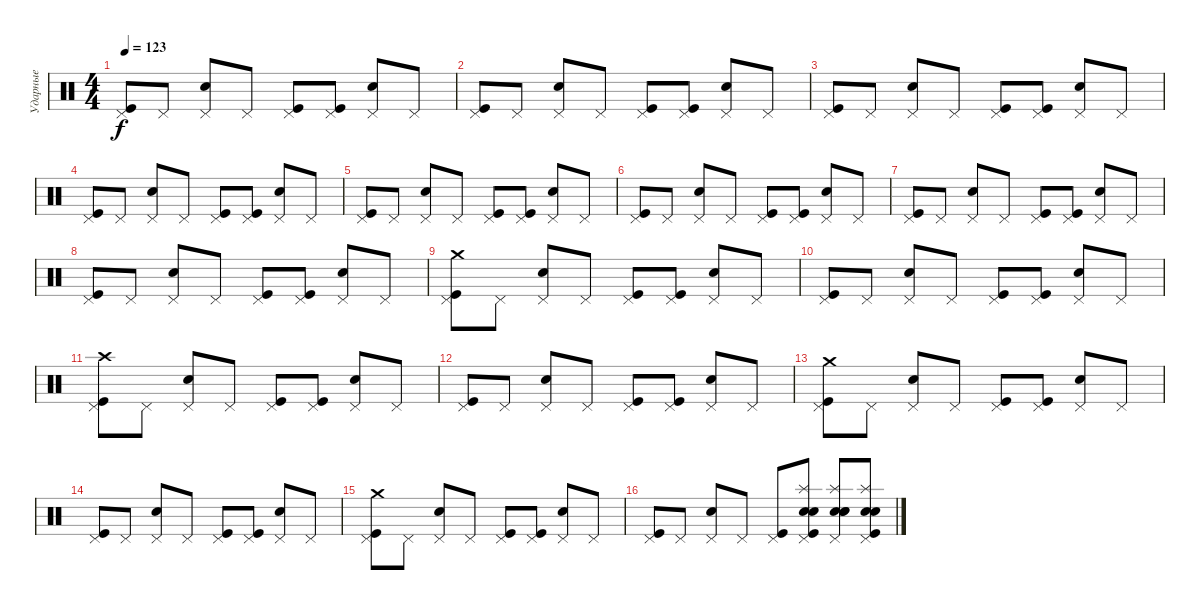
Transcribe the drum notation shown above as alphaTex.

\track ("Ударные" "Ударные") {instrument percussion}
\staff {score}
\articulation defaults
\ts (4 4)
\tempo 123
\clef neutral
\ks c
("Pedal Hi-Hat (hit)" "Kick (hit)").8{dy f} "Pedal Hi-Hat (hit)".8 ("Pedal Hi-Hat (hit)" "Snare (hit) 2").8 "Pedal Hi-Hat (hit)".8 ("Pedal Hi-Hat (hit)" "Kick (hit)").8 ("Pedal Hi-Hat (hit)" "Kick (hit)").8 ("Pedal Hi-Hat (hit)" "Snare (hit) 2").8 "Pedal Hi-Hat (hit)".8 |
("Pedal Hi-Hat (hit)" "Kick (hit)").8 "Pedal Hi-Hat (hit)".8 ("Pedal Hi-Hat (hit)" "Snare (hit) 2").8 "Pedal Hi-Hat (hit)".8 ("Pedal Hi-Hat (hit)" "Kick (hit)").8 ("Pedal Hi-Hat (hit)" "Kick (hit)").8 ("Pedal Hi-Hat (hit)" "Snare (hit) 2").8 "Pedal Hi-Hat (hit)".8 |
("Pedal Hi-Hat (hit)" "Kick (hit)").8 "Pedal Hi-Hat (hit)".8 ("Pedal Hi-Hat (hit)" "Snare (hit) 2").8 "Pedal Hi-Hat (hit)".8 ("Pedal Hi-Hat (hit)" "Kick (hit)").8 ("Pedal Hi-Hat (hit)" "Kick (hit)").8 ("Pedal Hi-Hat (hit)" "Snare (hit) 2").8 "Pedal Hi-Hat (hit)".8 |
("Pedal Hi-Hat (hit)" "Kick (hit)").8 "Pedal Hi-Hat (hit)".8 ("Pedal Hi-Hat (hit)" "Snare (hit) 2").8 "Pedal Hi-Hat (hit)".8 ("Pedal Hi-Hat (hit)" "Kick (hit)").8 ("Pedal Hi-Hat (hit)" "Kick (hit)").8 ("Pedal Hi-Hat (hit)" "Snare (hit) 2").8 "Pedal Hi-Hat (hit)".8 |
("Pedal Hi-Hat (hit)" "Kick (hit)").8 "Pedal Hi-Hat (hit)".8 ("Pedal Hi-Hat (hit)" "Snare (hit) 2").8 "Pedal Hi-Hat (hit)".8 ("Pedal Hi-Hat (hit)" "Kick (hit)").8 ("Pedal Hi-Hat (hit)" "Kick (hit)").8 ("Pedal Hi-Hat (hit)" "Snare (hit) 2").8 "Pedal Hi-Hat (hit)".8 |
("Pedal Hi-Hat (hit)" "Kick (hit)").8 "Pedal Hi-Hat (hit)".8 ("Pedal Hi-Hat (hit)" "Snare (hit) 2").8 "Pedal Hi-Hat (hit)".8 ("Pedal Hi-Hat (hit)" "Kick (hit)").8 ("Pedal Hi-Hat (hit)" "Kick (hit)").8 ("Pedal Hi-Hat (hit)" "Snare (hit) 2").8 "Pedal Hi-Hat (hit)".8 |
("Pedal Hi-Hat (hit)" "Kick (hit)").8 "Pedal Hi-Hat (hit)".8 ("Pedal Hi-Hat (hit)" "Snare (hit) 2").8 "Pedal Hi-Hat (hit)".8 ("Pedal Hi-Hat (hit)" "Kick (hit)").8 ("Pedal Hi-Hat (hit)" "Kick (hit)").8 ("Pedal Hi-Hat (hit)" "Snare (hit) 2").8 "Pedal Hi-Hat (hit)".8 |
("Pedal Hi-Hat (hit)" "Kick (hit)").8 "Pedal Hi-Hat (hit)".8 ("Pedal Hi-Hat (hit)" "Snare (hit) 2").8 "Pedal Hi-Hat (hit)".8 ("Pedal Hi-Hat (hit)" "Kick (hit)").8 ("Pedal Hi-Hat (hit)" "Kick (hit)").8 ("Pedal Hi-Hat (hit)" "Snare (hit) 2").8 "Pedal Hi-Hat (hit)".8 |
("Crash medium (hit)" "Pedal Hi-Hat (hit)" "Kick (hit)").8 "Pedal Hi-Hat (hit)".8 ("Pedal Hi-Hat (hit)" "Snare (hit) 2").8 "Pedal Hi-Hat (hit)".8 ("Pedal Hi-Hat (hit)" "Kick (hit)").8 ("Pedal Hi-Hat (hit)" "Kick (hit)").8 ("Pedal Hi-Hat (hit)" "Snare (hit) 2").8 "Pedal Hi-Hat (hit)".8 |
("Pedal Hi-Hat (hit)" "Kick (hit)").8 "Pedal Hi-Hat (hit)".8 ("Pedal Hi-Hat (hit)" "Snare (hit) 2").8 "Pedal Hi-Hat (hit)".8 ("Pedal Hi-Hat (hit)" "Kick (hit)").8 ("Pedal Hi-Hat (hit)" "Kick (hit)").8 ("Pedal Hi-Hat (hit)" "Snare (hit) 2").8 "Pedal Hi-Hat (hit)".8 |
("Crash high (hit)" "Pedal Hi-Hat (hit)" "Kick (hit)").8 "Pedal Hi-Hat (hit)".8 ("Pedal Hi-Hat (hit)" "Snare (hit) 2").8 "Pedal Hi-Hat (hit)".8 ("Pedal Hi-Hat (hit)" "Kick (hit)").8 ("Pedal Hi-Hat (hit)" "Kick (hit)").8 ("Pedal Hi-Hat (hit)" "Snare (hit) 2").8 "Pedal Hi-Hat (hit)".8 |
("Pedal Hi-Hat (hit)" "Kick (hit)").8 "Pedal Hi-Hat (hit)".8 ("Pedal Hi-Hat (hit)" "Snare (hit) 2").8 "Pedal Hi-Hat (hit)".8 ("Pedal Hi-Hat (hit)" "Kick (hit)").8 ("Pedal Hi-Hat (hit)" "Kick (hit)").8 ("Pedal Hi-Hat (hit)" "Snare (hit) 2").8 "Pedal Hi-Hat (hit)".8 |
("Crash medium (hit)" "Pedal Hi-Hat (hit)" "Kick (hit)").8 "Pedal Hi-Hat (hit)".8 ("Pedal Hi-Hat (hit)" "Snare (hit) 2").8 "Pedal Hi-Hat (hit)".8 ("Pedal Hi-Hat (hit)" "Kick (hit)").8 ("Pedal Hi-Hat (hit)" "Kick (hit)").8 ("Pedal Hi-Hat (hit)" "Snare (hit) 2").8 "Pedal Hi-Hat (hit)".8 |
("Pedal Hi-Hat (hit)" "Kick (hit)").8 "Pedal Hi-Hat (hit)".8 ("Pedal Hi-Hat (hit)" "Snare (hit) 2").8 "Pedal Hi-Hat (hit)".8 ("Pedal Hi-Hat (hit)" "Kick (hit)").8 ("Pedal Hi-Hat (hit)" "Kick (hit)").8 ("Pedal Hi-Hat (hit)" "Snare (hit) 2").8 "Pedal Hi-Hat (hit)".8 |
("Crash medium (hit)" "Pedal Hi-Hat (hit)" "Kick (hit)").8 "Pedal Hi-Hat (hit)".8 ("Pedal Hi-Hat (hit)" "Snare (hit) 2").8 "Pedal Hi-Hat (hit)".8 ("Pedal Hi-Hat (hit)" "Kick (hit)").8 ("Pedal Hi-Hat (hit)" "Kick (hit)").8 ("Pedal Hi-Hat (hit)" "Snare (hit) 2").8 "Pedal Hi-Hat (hit)".8 |
("Pedal Hi-Hat (hit)" "Kick (hit)").8 "Pedal Hi-Hat (hit)".8 ("Pedal Hi-Hat (hit)" "Snare (hit) 2").8 "Pedal Hi-Hat (hit)".8 ("Pedal Hi-Hat (hit)" "Kick (hit)").8 ("Splash (hit)" "Pedal Hi-Hat (hit)" "Electric Snare (hit)" "Electric Snare (hit)" "Kick (hit)").8 ("Splash (hit)" "Pedal Hi-Hat (hit)" "Electric Snare (hit)" "Electric Snare (hit)" "Snare (hit) 2").8 ("Splash (hit)" "Pedal Hi-Hat (hit)" "Electric Snare (hit)" "Electric Snare (hit)" "Kick (hit)").8
